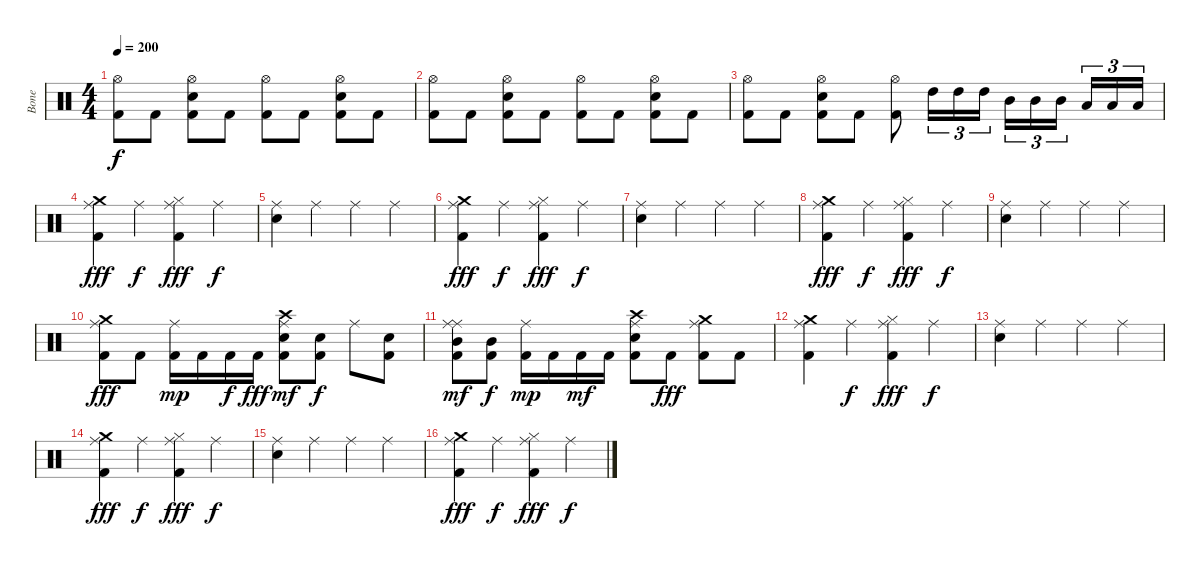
\track ("Bone " "Bone ") {instrument percussion}
\staff {score}
\articulation defaults
\ts (4 4)
\tempo 200
\clef neutral
\ks c
("Hi-Hat (open)" "Kick (hit) 2").8{dy f} "Kick (hit) 2".8 ("Hi-Hat (open)" "Electric Snare (hit)" "Kick (hit) 2").8 "Kick (hit) 2".8 ("Hi-Hat (open)" "Kick (hit) 2").8 "Kick (hit) 2".8 ("Hi-Hat (open)" "Electric Snare (hit)" "Kick (hit) 2").8 "Kick (hit) 2".8 |
("Hi-Hat (open)" "Kick (hit) 2").8 "Kick (hit) 2".8 ("Hi-Hat (open)" "Electric Snare (hit)" "Kick (hit) 2").8 "Kick (hit) 2".8 ("Hi-Hat (open)" "Kick (hit) 2").8 "Kick (hit) 2".8 ("Hi-Hat (open)" "Electric Snare (hit)" "Kick (hit) 2").8 "Kick (hit) 2".8 |
("Hi-Hat (open)" "Kick (hit) 2").8 "Kick (hit) 2".8 ("Hi-Hat (open)" "Electric Snare (hit)" "Kick (hit) 2").8 "Kick (hit) 2".8 ("Hi-Hat (open)" "Kick (hit) 2").8 "High Tom (hit)".16{tu (3 2)} "High Tom (hit)".16{tu (3 2)} "High Tom (hit)".16{tu (3 2)} "Mid Tom (hit)".16{tu (3 2)} "Mid Tom (hit)".16{tu (3 2)} "Mid Tom (hit)".16{tu (3 2) beam splitsecondary} "Low Tom (hit)".16{tu (3 2)} "Low Tom (hit)".16{tu (3 2)} "Low Tom (hit)".16{tu (3 2)} |
("Ride (middle)" "Crash medium (hit)" "Kick (hit) 2").4{dy fff} "Ride (middle)".4{dy f} ("Ride (middle)" "Hi-Hat (closed)" "Kick (hit) 2").4{dy fff} "Ride (middle)".4{dy f} |
("Ride (middle)" "Electric Snare (hit)").4 "Ride (middle)".4 "Ride (middle)".4 "Ride (middle)".4 |
("Ride (middle)" "Crash medium (hit)" "Kick (hit) 2").4{dy fff} "Ride (middle)".4{dy f} ("Ride (middle)" "Hi-Hat (closed)" "Kick (hit) 2").4{dy fff} "Ride (middle)".4{dy f} |
("Ride (middle)" "Electric Snare (hit)").4 "Ride (middle)".4 "Ride (middle)".4 "Ride (middle)".4 |
("Ride (middle)" "Crash medium (hit)" "Kick (hit) 2").4{dy fff} "Ride (middle)".4{dy f} ("Ride (middle)" "Hi-Hat (closed)" "Kick (hit) 2").4{dy fff} "Ride (middle)".4{dy f} |
("Ride (middle)" "Electric Snare (hit)").4 "Ride (middle)".4 "Ride (middle)".4 "Ride (middle)".4 |
("Ride (middle)" "Crash medium (hit)" "Kick (hit) 2").8{dy fff} "Kick (hit) 2".8 ("Ride (middle)" "Kick (hit) 2").16{dy mp} "Kick (hit) 2".16 "Kick (hit) 2".16{dy f} "Kick (hit) 2".16{dy fff} ("Ride (middle)" "Crash high (hit)" "Electric Snare (hit)" "Kick (hit) 2").8{dy mf} ("Electric Snare (hit)" "Kick (hit) 2").8{dy f} "Ride (middle)".8 ("Electric Snare (hit)" "Kick (hit) 2").8 |
("Ride (middle)" "Ride (middle)" "Mid Tom (hit)" "Kick (hit) 2").8{dy mf} ("Mid Tom (hit)" "Kick (hit) 2").8{dy f} ("Ride (middle)" "Kick (hit) 2").16{dy mp} "Kick (hit) 2".16 "Kick (hit) 2".16{dy mf} "Kick (hit) 2".16 ("Ride (middle)" "Crash high (hit)" "Electric Snare (hit)" "Kick (hit) 2").8 "Kick (hit) 2".8{dy fff} ("Ride (middle)" "Crash medium (hit)" "Kick (hit) 2").8 "Kick (hit) 2".8 |
("Ride (middle)" "Crash medium (hit)" "Kick (hit) 2").4 "Ride (middle)".4{dy f} ("Ride (middle)" "Hi-Hat (closed)" "Kick (hit) 2").4{dy fff} "Ride (middle)".4{dy f} |
("Ride (middle)" "Electric Snare (hit)").4 "Ride (middle)".4 "Ride (middle)".4 "Ride (middle)".4 |
("Ride (middle)" "Crash medium (hit)" "Kick (hit) 2").4{dy fff} "Ride (middle)".4{dy f} ("Ride (middle)" "Hi-Hat (closed)" "Kick (hit) 2").4{dy fff} "Ride (middle)".4{dy f} |
("Ride (middle)" "Electric Snare (hit)").4 "Ride (middle)".4 "Ride (middle)".4 "Ride (middle)".4 |
("Ride (middle)" "Crash medium (hit)" "Kick (hit) 2").4{dy fff} "Ride (middle)".4{dy f} ("Ride (middle)" "Hi-Hat (closed)" "Kick (hit) 2").4{dy fff} "Ride (middle)".4{dy f}
